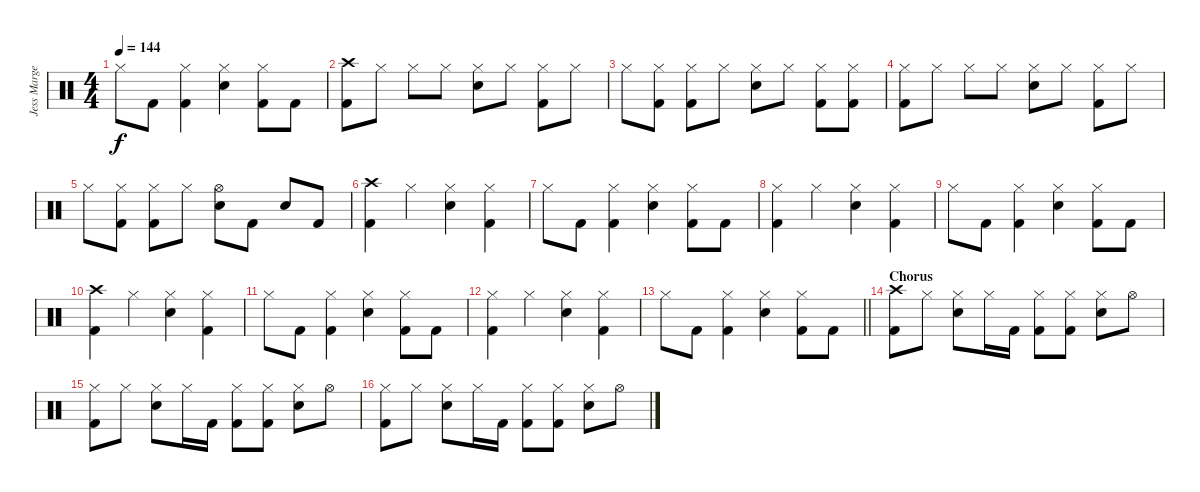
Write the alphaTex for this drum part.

\track ("Jess Margera" "Jess Marge") {instrument percussion}
\staff {score}
\articulation defaults
\ts (4 4)
\tempo 144
\clef neutral
\ks c "Hi-Hat (closed)".8{dy f} "Kick (hit) 2".8
("Hi-Hat (closed)" "Kick (hit) 2").4 ("Hi-Hat (closed)" "Electric Snare (hit)").4 ("Hi-Hat (closed)" "Kick (hit) 2").8 "Kick (hit) 2".8 |
("Crash high (hit)" "Kick (hit) 2").8 "Hi-Hat (closed)".8 "Hi-Hat (closed)".8 "Hi-Hat (closed)".8 ("Hi-Hat (closed)" "Electric Snare (hit)").8 "Hi-Hat (closed)".8 ("Hi-Hat (closed)" "Kick (hit) 2").8 "Hi-Hat (closed)".8 |
"Hi-Hat (closed)".8 ("Hi-Hat (closed)" "Kick (hit) 2").8 ("Hi-Hat (closed)" "Kick (hit) 2").8 "Hi-Hat (closed)".8 ("Hi-Hat (closed)" "Electric Snare (hit)").8 "Hi-Hat (closed)".8 ("Hi-Hat (closed)" "Kick (hit) 2").8 ("Hi-Hat (closed)" "Kick (hit) 2").8 |
("Hi-Hat (closed)" "Kick (hit) 2").8 "Hi-Hat (closed)".8 "Hi-Hat (closed)".8 "Hi-Hat (closed)".8 ("Hi-Hat (closed)" "Electric Snare (hit)").8 "Hi-Hat (closed)".8 ("Hi-Hat (closed)" "Kick (hit) 2").8 "Hi-Hat (closed)".8 |
"Hi-Hat (closed)".8 ("Hi-Hat (closed)" "Kick (hit) 2").8 ("Hi-Hat (closed)" "Kick (hit) 2").8 "Hi-Hat (closed)".8 ("Hi-Hat (open)" "Electric Snare (hit)").8 "Kick (hit) 2".8 "Electric Snare (hit)".8 "Kick (hit) 2".8 |
("Crash high (hit)" "Kick (hit) 2").4 "Hi-Hat (closed)".4 ("Hi-Hat (closed)" "Electric Snare (hit)").4 ("Hi-Hat (closed)" "Kick (hit) 2").4 |
"Hi-Hat (closed)".8 "Kick (hit) 2".8 ("Hi-Hat (closed)" "Kick (hit) 2").4 ("Hi-Hat (closed)" "Electric Snare (hit)").4 ("Hi-Hat (closed)" "Kick (hit) 2").8 "Kick (hit) 2".8 |
("Hi-Hat (closed)" "Kick (hit) 2").4 "Hi-Hat (closed)".4 ("Hi-Hat (closed)" "Electric Snare (hit)").4 ("Hi-Hat (closed)" "Kick (hit) 2").4 |
"Hi-Hat (closed)".8 "Kick (hit) 2".8 ("Hi-Hat (closed)" "Kick (hit) 2").4 ("Hi-Hat (closed)" "Electric Snare (hit)").4 ("Hi-Hat (closed)" "Kick (hit) 2").8 "Kick (hit) 2".8 |
("Crash high (hit)" "Kick (hit) 2").4 "Hi-Hat (closed)".4 ("Hi-Hat (closed)" "Electric Snare (hit)").4 ("Hi-Hat (closed)" "Kick (hit) 2").4 |
"Hi-Hat (closed)".8 "Kick (hit) 2".8 ("Hi-Hat (closed)" "Kick (hit) 2").4 ("Hi-Hat (closed)" "Electric Snare (hit)").4 ("Hi-Hat (closed)" "Kick (hit) 2").8 "Kick (hit) 2".8 |
("Hi-Hat (closed)" "Kick (hit) 2").4 "Hi-Hat (closed)".4 ("Hi-Hat (closed)" "Electric Snare (hit)").4 ("Hi-Hat (closed)" "Kick (hit) 2").4 |
\barLineRight lightlight "Hi-Hat (closed)".8 "Kick (hit) 2".8
("Hi-Hat (closed)" "Kick (hit) 2").4 ("Hi-Hat (closed)" "Electric Snare (hit)").4 ("Hi-Hat (closed)" "Kick (hit) 2").8 "Kick (hit) 2".8 |
\section ("" "Chorus")
("Crash high (hit)" "Kick (hit) 2").8 "Hi-Hat (closed)".8 ("Hi-Hat (closed)" "Electric Snare (hit)").8 "Hi-Hat (closed)".16 "Kick (hit) 2".16 ("Hi-Hat (closed)" "Kick (hit) 2").8 ("Hi-Hat (closed)" "Kick (hit) 2").8 ("Hi-Hat (closed)" "Electric Snare (hit)").8 "Hi-Hat (open)".8 |
("Hi-Hat (closed)" "Kick (hit) 2").8 "Hi-Hat (closed)".8 ("Hi-Hat (closed)" "Electric Snare (hit)").8 "Hi-Hat (closed)".16 "Kick (hit) 2".16 ("Hi-Hat (closed)" "Kick (hit) 2").8 ("Hi-Hat (closed)" "Kick (hit) 2").8 ("Hi-Hat (closed)" "Electric Snare (hit)").8 "Hi-Hat (open)".8 |
("Hi-Hat (closed)" "Kick (hit) 2").8 "Hi-Hat (closed)".8 ("Hi-Hat (closed)" "Electric Snare (hit)").8 "Hi-Hat (closed)".16 "Kick (hit) 2".16 ("Hi-Hat (closed)" "Kick (hit) 2").8 ("Hi-Hat (closed)" "Kick (hit) 2").8 ("Hi-Hat (closed)" "Electric Snare (hit)").8 "Hi-Hat (open)".8
